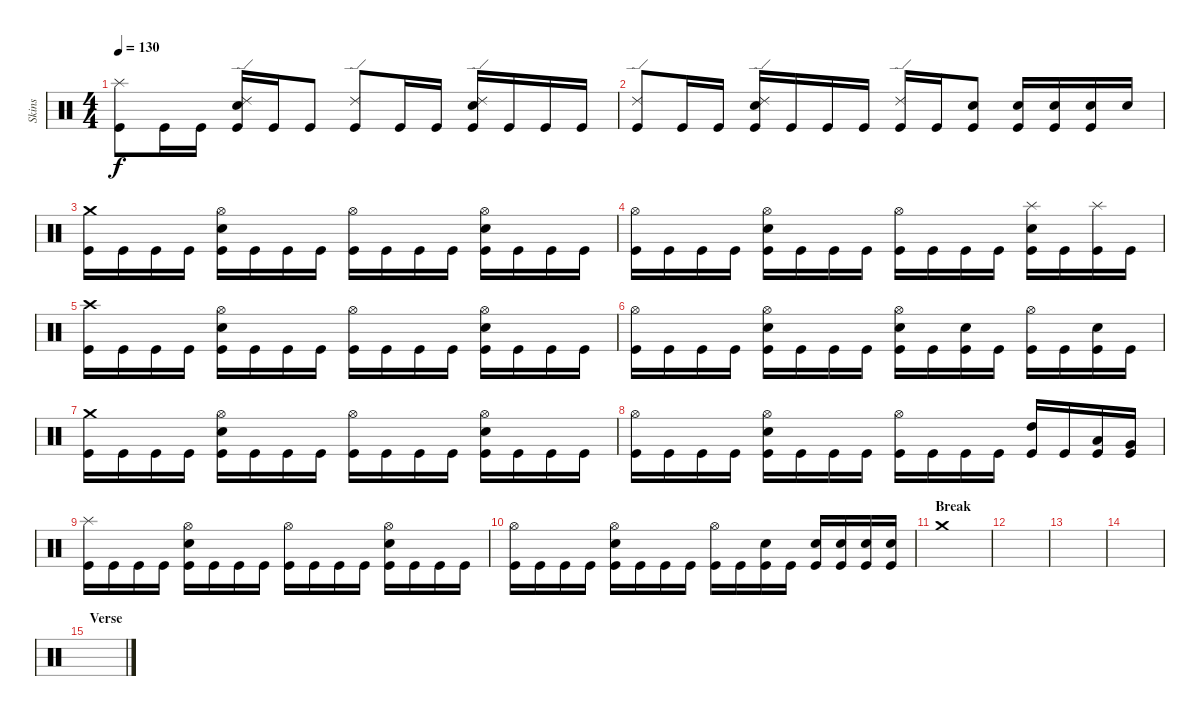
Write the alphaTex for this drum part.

\track ("Skins" "Skins") {instrument percussion}
\staff {score}
\articulation defaults
\ts (4 4)
\tempo 130
\clef neutral
\ks c
("Splash (hit)" "Kick (hit)").8{dy f} "Kick (hit)".16 "Kick (hit)".16 ("Ride (edge) 2" "Electric Snare (hit)" "Kick (hit)").16 "Kick (hit)".16 "Kick (hit)".8 ("Ride (edge) 2" "Kick (hit)").8 "Kick (hit)".16 "Kick (hit)".16 ("Ride (edge) 2" "Electric Snare (hit)" "Kick (hit)").16 "Kick (hit)".16 "Kick (hit)".16 "Kick (hit)".16 |
("Ride (edge) 2" "Kick (hit)").8 "Kick (hit)".16 "Kick (hit)".16 ("Ride (edge) 2" "Electric Snare (hit)" "Kick (hit)").16 "Kick (hit)".16 "Kick (hit)".16 "Kick (hit)".16 ("Ride (edge) 2" "Kick (hit)").16 "Kick (hit)".16 ("Electric Snare (hit)" "Kick (hit)").8 ("Electric Snare (hit)" "Kick (hit)").16 ("Electric Snare (hit)" "Kick (hit)").16 ("Electric Snare (hit)" "Kick (hit)").16 "Electric Snare (hit)".16 |
("Crash medium (hit)" "Kick (hit)").16 "Kick (hit)".16 "Kick (hit)".16 "Kick (hit)".16 ("Hi-Hat (open)" "Electric Snare (hit)" "Kick (hit)").16 "Kick (hit)".16 "Kick (hit)".16 "Kick (hit)".16 ("Hi-Hat (open)" "Kick (hit)").16 "Kick (hit)".16 "Kick (hit)".16 "Kick (hit)".16 ("Hi-Hat (open)" "Electric Snare (hit)" "Kick (hit)").16 "Kick (hit)".16 "Kick (hit)".16 "Kick (hit)".16 |
("Hi-Hat (open)" "Kick (hit)").16 "Kick (hit)".16 "Kick (hit)".16 "Kick (hit)".16 ("Hi-Hat (open)" "Electric Snare (hit)" "Kick (hit)").16 "Kick (hit)".16 "Kick (hit)".16 "Kick (hit)".16 ("Hi-Hat (open)" "Kick (hit)").16 "Kick (hit)".16 "Kick (hit)".16 "Kick (hit)".16 ("Splash (hit)" "Electric Snare (hit)" "Kick (hit)").16 "Kick (hit)".16 ("Splash (hit)" "Kick (hit)").16 "Kick (hit)".16 |
("Crash high (hit)" "Kick (hit)").16 "Kick (hit)".16 "Kick (hit)".16 "Kick (hit)".16 ("Hi-Hat (open)" "Electric Snare (hit)" "Kick (hit)").16 "Kick (hit)".16 "Kick (hit)".16 "Kick (hit)".16 ("Hi-Hat (open)" "Kick (hit)").16 "Kick (hit)".16 "Kick (hit)".16 "Kick (hit)".16 ("Hi-Hat (open)" "Electric Snare (hit)" "Kick (hit)").16 "Kick (hit)".16 "Kick (hit)".16 "Kick (hit)".16 |
("Hi-Hat (open)" "Kick (hit)").16 "Kick (hit)".16 "Kick (hit)".16 "Kick (hit)".16 ("Hi-Hat (open)" "Electric Snare (hit)" "Kick (hit)").16 "Kick (hit)".16 "Kick (hit)".16 "Kick (hit)".16 ("Hi-Hat (open)" "Electric Snare (hit)" "Kick (hit)").16 "Kick (hit)".16 ("Electric Snare (hit)" "Kick (hit)").16 "Kick (hit)".16 ("Hi-Hat (open)" "Kick (hit)").16 "Kick (hit)".16 ("Electric Snare (hit)" "Kick (hit)").16 "Kick (hit)".16 |
("Crash medium (hit)" "Kick (hit)").16 "Kick (hit)".16 "Kick (hit)".16 "Kick (hit)".16 ("Hi-Hat (open)" "Electric Snare (hit)" "Kick (hit)").16 "Kick (hit)".16 "Kick (hit)".16 "Kick (hit)".16 ("Hi-Hat (open)" "Kick (hit)").16 "Kick (hit)".16 "Kick (hit)".16 "Kick (hit)".16 ("Hi-Hat (open)" "Electric Snare (hit)" "Kick (hit)").16 "Kick (hit)".16 "Kick (hit)".16 "Kick (hit)".16 |
("Hi-Hat (open)" "Kick (hit)").16 "Kick (hit)".16 "Kick (hit)".16 "Kick (hit)".16 ("Hi-Hat (open)" "Electric Snare (hit)" "Kick (hit)").16 "Kick (hit)".16 "Kick (hit)".16 "Kick (hit)".16 ("Hi-Hat (open)" "Kick (hit)").16 "Kick (hit)".16 "Kick (hit)".16 "Kick (hit)".16 ("High Tom (hit)" "Kick (hit)").16 "Kick (hit)".16 ("Low Tom (hit)" "Kick (hit)").16 ("Very Low Tom (hit)" "Kick (hit)").16 |
("Splash (hit)" "Kick (hit)").16 "Kick (hit)".16 "Kick (hit)".16 "Kick (hit)".16 ("Hi-Hat (open)" "Electric Snare (hit)" "Kick (hit)").16 "Kick (hit)".16 "Kick (hit)".16 "Kick (hit)".16 ("Hi-Hat (open)" "Kick (hit)").16 "Kick (hit)".16 "Kick (hit)".16 "Kick (hit)".16 ("Hi-Hat (open)" "Electric Snare (hit)" "Kick (hit)").16 "Kick (hit)".16 "Kick (hit)".16 "Kick (hit)".16 |
("Hi-Hat (open)" "Kick (hit)").16 "Kick (hit)".16 "Kick (hit)".16 "Kick (hit)".16 ("Hi-Hat (open)" "Electric Snare (hit)" "Kick (hit)").16 "Kick (hit)".16 "Kick (hit)".16 "Kick (hit)".16 ("Hi-Hat (open)" "Kick (hit)").16 "Kick (hit)".16 ("Electric Snare (hit)" "Kick (hit)").16 "Kick (hit)".16 ("Electric Snare (hit)" "Kick (hit)").16 ("Electric Snare (hit)" "Kick (hit)").16 ("Electric Snare (hit)" "Kick (hit)").16 ("Electric Snare (hit)" "Kick (hit)").16 |
\section ("" "Break")
"Crash medium (hit)".1 |
|
|
|
\section ("" "Verse")
